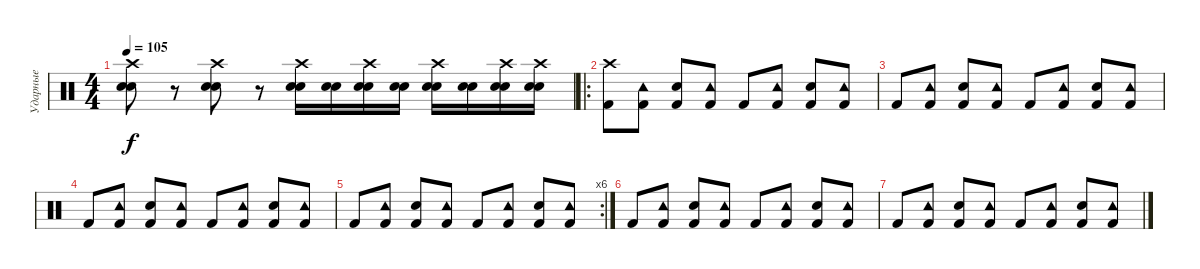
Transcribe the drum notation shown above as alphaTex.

\track ("Ударные" "Ударные") {instrument percussion}
\staff {score}
\articulation defaults
\ts (4 4)
\tempo 105
\clef neutral
\ks c
("Electric Snare (hit)" "Snare (hit) 2" "Crash high (hit)").8{dy f} r.8 ("Electric Snare (hit)" "Snare (hit) 2" "Crash high (hit)").8 r.8 ("Electric Snare (hit)" "Snare (hit) 2" "Crash high (hit)").16 ("Electric Snare (hit)" "Snare (hit) 2").16 ("Electric Snare (hit)" "Snare (hit) 2" "Crash high (hit)").16 ("Electric Snare (hit)" "Snare (hit) 2").16 ("Electric Snare (hit)" "Snare (hit) 2" "Crash high (hit)").16 ("Electric Snare (hit)" "Snare (hit) 2").16 ("Electric Snare (hit)" "Snare (hit) 2" "Crash high (hit)").16 ("Electric Snare (hit)" "Snare (hit) 2" "Crash high (hit)").16 |
\ro
("Kick (hit) 2" "Crash high (hit)").8 ("Kick (hit) 2" "Tambourine (hit)").8 ("Electric Snare (hit)" "Kick (hit) 2").8 ("Kick (hit) 2" "Tambourine (hit)").8 "Kick (hit) 2".8 ("Kick (hit) 2" "Tambourine (hit)").8 ("Electric Snare (hit)" "Kick (hit) 2").8 ("Kick (hit) 2" "Tambourine (hit)").8 |
"Kick (hit) 2".8 ("Kick (hit) 2" "Tambourine (hit)").8 ("Electric Snare (hit)" "Kick (hit) 2").8 ("Kick (hit) 2" "Tambourine (hit)").8 "Kick (hit) 2".8 ("Kick (hit) 2" "Tambourine (hit)").8 ("Electric Snare (hit)" "Kick (hit) 2").8 ("Kick (hit) 2" "Tambourine (hit)").8 |
"Kick (hit) 2".8 ("Kick (hit) 2" "Tambourine (hit)").8 ("Electric Snare (hit)" "Kick (hit) 2").8 ("Kick (hit) 2" "Tambourine (hit)").8 "Kick (hit) 2".8 ("Kick (hit) 2" "Tambourine (hit)").8 ("Electric Snare (hit)" "Kick (hit) 2").8 ("Kick (hit) 2" "Tambourine (hit)").8 |
\rc 6 "Kick (hit) 2".8
("Kick (hit) 2" "Tambourine (hit)").8 ("Electric Snare (hit)" "Kick (hit) 2").8 ("Kick (hit) 2" "Tambourine (hit)").8 "Kick (hit) 2".8 ("Kick (hit) 2" "Tambourine (hit)").8 ("Electric Snare (hit)" "Kick (hit) 2").8 ("Kick (hit) 2" "Tambourine (hit)").8 |
"Kick (hit) 2".8 ("Kick (hit) 2" "Tambourine (hit)").8 ("Electric Snare (hit)" "Kick (hit) 2").8 ("Kick (hit) 2" "Tambourine (hit)").8 "Kick (hit) 2".8 ("Kick (hit) 2" "Tambourine (hit)").8 ("Electric Snare (hit)" "Kick (hit) 2").8 ("Kick (hit) 2" "Tambourine (hit)").8 |
"Kick (hit) 2".8 ("Kick (hit) 2" "Tambourine (hit)").8 ("Electric Snare (hit)" "Kick (hit) 2").8 ("Kick (hit) 2" "Tambourine (hit)").8 "Kick (hit) 2".8 ("Kick (hit) 2" "Tambourine (hit)").8 ("Electric Snare (hit)" "Kick (hit) 2").8 ("Kick (hit) 2" "Tambourine (hit)").8
